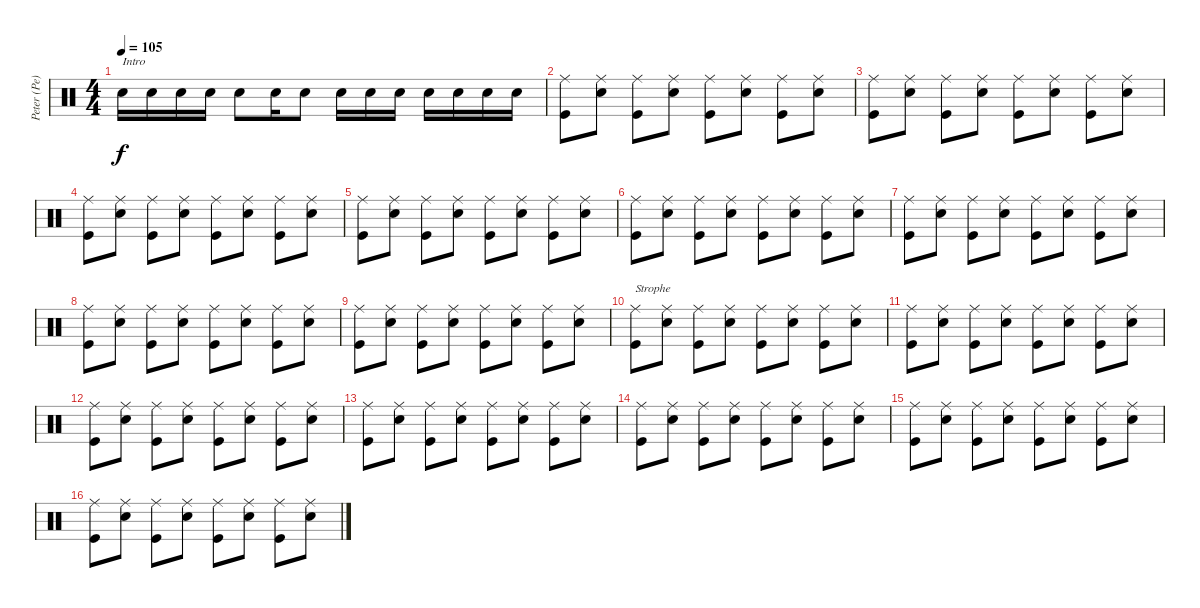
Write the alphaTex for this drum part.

\track ("Peter (Pe) Schorowsky" "Peter (Pe)") {instrument percussion}
\staff {score}
\articulation defaults
\ts (4 4)
\tempo 105
\clef neutral
\ks c "Snare (hit) 2".16{txt "Intro" dy f} "Snare (hit) 2".16 "Snare (hit) 2".16 "Snare (hit) 2".16 "Snare (hit) 2".8 "Snare (hit) 2".16 "Snare (hit) 2".8 "Snare (hit) 2".16 "Snare (hit) 2".16 "Snare (hit) 2".16 "Snare (hit) 2".16 "Snare (hit) 2".16 "Snare (hit) 2".16 "Snare (hit) 2".16
|
("Ride (middle)" "Kick (hit)").8 ("Ride (middle)" "Snare (hit) 2").8 ("Ride (middle)" "Kick (hit)").8 ("Ride (middle)" "Snare (hit) 2").8 ("Ride (middle)" "Kick (hit)").8 ("Ride (middle)" "Snare (hit) 2").8 ("Ride (middle)" "Kick (hit)").8 ("Ride (middle)" "Snare (hit) 2").8 |
("Ride (middle)" "Kick (hit)").8 ("Ride (middle)" "Snare (hit) 2").8 ("Ride (middle)" "Kick (hit)").8 ("Ride (middle)" "Snare (hit) 2").8 ("Ride (middle)" "Kick (hit)").8 ("Ride (middle)" "Snare (hit) 2").8 ("Ride (middle)" "Kick (hit)").8 ("Ride (middle)" "Snare (hit) 2").8 |
("Ride (middle)" "Kick (hit)").8 ("Ride (middle)" "Snare (hit) 2").8 ("Ride (middle)" "Kick (hit)").8 ("Ride (middle)" "Snare (hit) 2").8 ("Ride (middle)" "Kick (hit)").8 ("Ride (middle)" "Snare (hit) 2").8 ("Ride (middle)" "Kick (hit)").8 ("Ride (middle)" "Snare (hit) 2").8 |
("Ride (middle)" "Kick (hit)").8 ("Ride (middle)" "Snare (hit) 2").8 ("Ride (middle)" "Kick (hit)").8 ("Ride (middle)" "Snare (hit) 2").8 ("Ride (middle)" "Kick (hit)").8 ("Ride (middle)" "Snare (hit) 2").8 ("Ride (middle)" "Kick (hit)").8 ("Ride (middle)" "Snare (hit) 2").8 |
("Ride (middle)" "Kick (hit)").8 ("Ride (middle)" "Snare (hit) 2").8 ("Ride (middle)" "Kick (hit)").8 ("Ride (middle)" "Snare (hit) 2").8 ("Ride (middle)" "Kick (hit)").8 ("Ride (middle)" "Snare (hit) 2").8 ("Ride (middle)" "Kick (hit)").8 ("Ride (middle)" "Snare (hit) 2").8 |
("Ride (middle)" "Kick (hit)").8 ("Ride (middle)" "Snare (hit) 2").8 ("Ride (middle)" "Kick (hit)").8 ("Ride (middle)" "Snare (hit) 2").8 ("Ride (middle)" "Kick (hit)").8 ("Ride (middle)" "Snare (hit) 2").8 ("Ride (middle)" "Kick (hit)").8 ("Ride (middle)" "Snare (hit) 2").8 |
("Ride (middle)" "Kick (hit)").8 ("Ride (middle)" "Snare (hit) 2").8 ("Ride (middle)" "Kick (hit)").8 ("Ride (middle)" "Snare (hit) 2").8 ("Ride (middle)" "Kick (hit)").8 ("Ride (middle)" "Snare (hit) 2").8 ("Ride (middle)" "Kick (hit)").8 ("Ride (middle)" "Snare (hit) 2").8 |
("Ride (middle)" "Kick (hit)").8 ("Ride (middle)" "Snare (hit) 2").8 ("Ride (middle)" "Kick (hit)").8 ("Ride (middle)" "Snare (hit) 2").8 ("Ride (middle)" "Kick (hit)").8 ("Ride (middle)" "Snare (hit) 2").8 ("Ride (middle)" "Kick (hit)").8 ("Ride (middle)" "Snare (hit) 2").8 |
("Ride (middle)" "Kick (hit)").8{txt "Strophe"} ("Ride (middle)" "Snare (hit) 2").8 ("Ride (middle)" "Kick (hit)").8 ("Ride (middle)" "Snare (hit) 2").8 ("Ride (middle)" "Kick (hit)").8 ("Ride (middle)" "Snare (hit) 2").8 ("Ride (middle)" "Kick (hit)").8 ("Ride (middle)" "Snare (hit) 2").8 |
("Ride (middle)" "Kick (hit)").8 ("Ride (middle)" "Snare (hit) 2").8 ("Ride (middle)" "Kick (hit)").8 ("Ride (middle)" "Snare (hit) 2").8 ("Ride (middle)" "Kick (hit)").8 ("Ride (middle)" "Snare (hit) 2").8 ("Ride (middle)" "Kick (hit)").8 ("Ride (middle)" "Snare (hit) 2").8 |
("Ride (middle)" "Kick (hit)").8 ("Ride (middle)" "Snare (hit) 2").8 ("Ride (middle)" "Kick (hit)").8 ("Ride (middle)" "Snare (hit) 2").8 ("Ride (middle)" "Kick (hit)").8 ("Ride (middle)" "Snare (hit) 2").8 ("Ride (middle)" "Kick (hit)").8 ("Ride (middle)" "Snare (hit) 2").8 |
("Ride (middle)" "Kick (hit)").8 ("Ride (middle)" "Snare (hit) 2").8 ("Ride (middle)" "Kick (hit)").8 ("Ride (middle)" "Snare (hit) 2").8 ("Ride (middle)" "Kick (hit)").8 ("Ride (middle)" "Snare (hit) 2").8 ("Ride (middle)" "Kick (hit)").8 ("Ride (middle)" "Snare (hit) 2").8 |
("Ride (middle)" "Kick (hit)").8 ("Ride (middle)" "Snare (hit) 2").8 ("Ride (middle)" "Kick (hit)").8 ("Ride (middle)" "Snare (hit) 2").8 ("Ride (middle)" "Kick (hit)").8 ("Ride (middle)" "Snare (hit) 2").8 ("Ride (middle)" "Kick (hit)").8 ("Ride (middle)" "Snare (hit) 2").8 |
("Ride (middle)" "Kick (hit)").8 ("Ride (middle)" "Snare (hit) 2").8 ("Ride (middle)" "Kick (hit)").8 ("Ride (middle)" "Snare (hit) 2").8 ("Ride (middle)" "Kick (hit)").8 ("Ride (middle)" "Snare (hit) 2").8 ("Ride (middle)" "Kick (hit)").8 ("Ride (middle)" "Snare (hit) 2").8 |
("Ride (middle)" "Kick (hit)").8 ("Ride (middle)" "Snare (hit) 2").8 ("Ride (middle)" "Kick (hit)").8 ("Ride (middle)" "Snare (hit) 2").8 ("Ride (middle)" "Kick (hit)").8 ("Ride (middle)" "Snare (hit) 2").8 ("Ride (middle)" "Kick (hit)").8 ("Ride (middle)" "Snare (hit) 2").8
